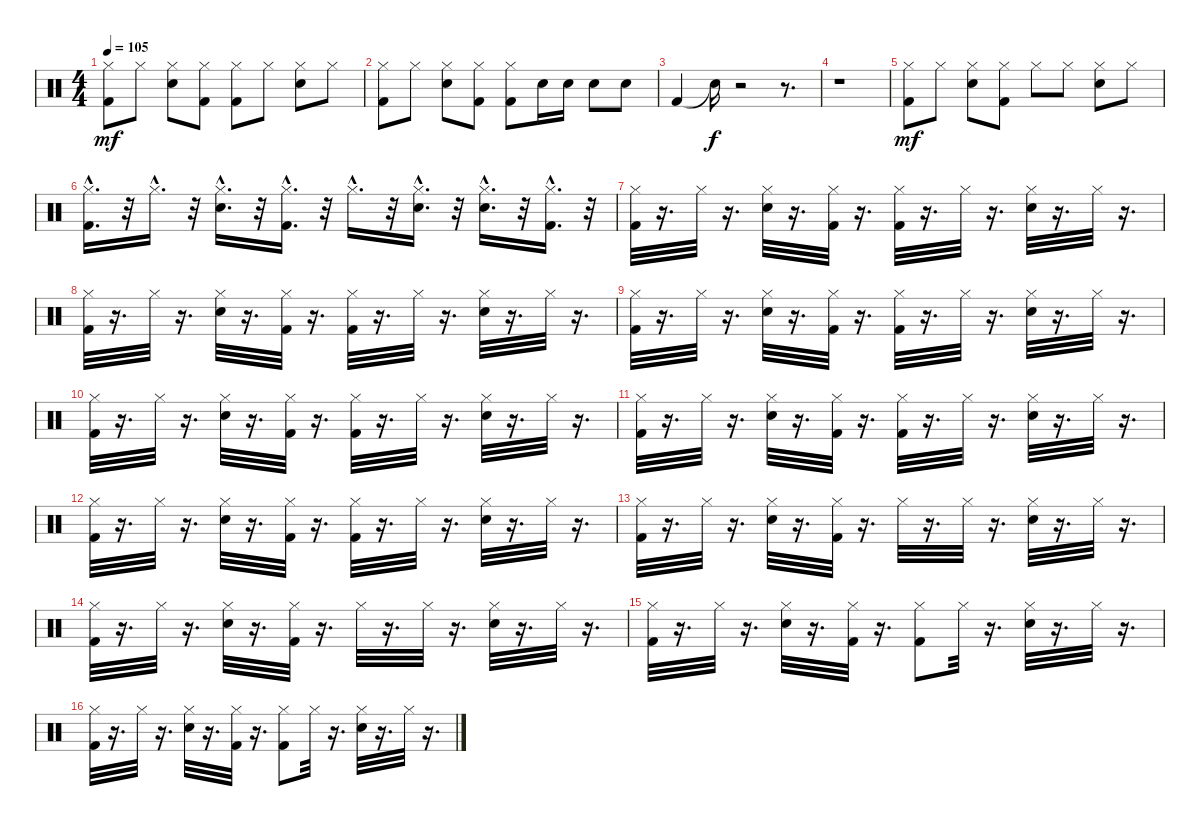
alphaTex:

\track "" {instrument percussion}
\staff {score}
\articulation defaults
\ts (4 4)
\tempo 105
\clef neutral
\ks c
("Kick (hit) 2" "Hi-Hat (closed)").8{dy mf} "Hi-Hat (closed)".8 ("Snare (hit) 2" "Hi-Hat (closed)").8 ("Kick (hit) 2" "Hi-Hat (closed)").8 ("Kick (hit) 2" "Hi-Hat (closed)").8 "Hi-Hat (closed)".8 ("Snare (hit) 2" "Hi-Hat (closed)").8 "Hi-Hat (closed)".8 |
("Kick (hit) 2" "Hi-Hat (closed)").8 "Hi-Hat (closed)".8 ("Snare (hit) 2" "Hi-Hat (closed)").8 ("Kick (hit) 2" "Hi-Hat (closed)").8 ("Kick (hit) 2" "Hi-Hat (closed)").8 "Snare (hit) 2".16 "Snare (hit) 2".16 "Snare (hit) 2".8 "Snare (hit) 2".8 |
"Kick (hit) 2".4 "Snare (hit)"{t}.16{dy f} r.2 r.8{d} |
r.1 |
("Kick (hit) 2" "Hi-Hat (closed)").8{dy mf} "Hi-Hat (closed)".8 ("Snare (hit) 2" "Hi-Hat (closed)").8 ("Kick (hit) 2" "Hi-Hat (closed)").8 "Hi-Hat (closed)".8 "Hi-Hat (closed)".8 ("Snare (hit) 2" "Hi-Hat (closed)").8 "Hi-Hat (closed)".8 |
("Kick (hit) 2" "Hi-Hat (closed)"{hac}).16{d} r.32 "Hi-Hat (closed)"{hac}.16{d} r.32 ("Snare (hit) 2" "Hi-Hat (closed)"{hac}).16{d} r.32 ("Kick (hit) 2" "Hi-Hat (closed)"{hac}).16{d} r.32 "Hi-Hat (closed)"{hac}.16{d} r.32 ("Snare (hit) 2" "Hi-Hat (closed)"{hac}).16{d} r.32 ("Snare (hit) 2" "Hi-Hat (closed)"{hac}).16{d} r.32 ("Kick (hit) 2" "Hi-Hat (closed)"{hac}).16{d} r.32 |
("Kick (hit) 2" "Hi-Hat (closed)").32 r.16{d} "Hi-Hat (closed)".32 r.16{d} ("Snare (hit) 2" "Hi-Hat (closed)").32 r.16{d} ("Kick (hit) 2" "Hi-Hat (closed)").32 r.16{d} ("Kick (hit) 2" "Hi-Hat (closed)").32 r.16{d} "Hi-Hat (closed)".32 r.16{d} ("Snare (hit) 2" "Hi-Hat (closed)").32 r.16{d} "Hi-Hat (closed)".32 r.16{d} |
("Kick (hit) 2" "Hi-Hat (closed)").32 r.16{d} "Hi-Hat (closed)".32 r.16{d} ("Snare (hit) 2" "Hi-Hat (closed)").32 r.16{d} ("Kick (hit) 2" "Hi-Hat (closed)").32 r.16{d} ("Kick (hit) 2" "Hi-Hat (closed)").32 r.16{d} "Hi-Hat (closed)".32 r.16{d} ("Snare (hit) 2" "Hi-Hat (closed)").32 r.16{d} "Hi-Hat (closed)".32 r.16{d} |
("Kick (hit) 2" "Hi-Hat (closed)").32 r.16{d} "Hi-Hat (closed)".32 r.16{d} ("Snare (hit) 2" "Hi-Hat (closed)").32 r.16{d} ("Kick (hit) 2" "Hi-Hat (closed)").32 r.16{d} ("Kick (hit) 2" "Hi-Hat (closed)").32 r.16{d} "Hi-Hat (closed)".32 r.16{d} ("Snare (hit) 2" "Hi-Hat (closed)").32 r.16{d} "Hi-Hat (closed)".32 r.16{d} |
("Kick (hit) 2" "Hi-Hat (closed)").32 r.16{d} "Hi-Hat (closed)".32 r.16{d} ("Snare (hit) 2" "Hi-Hat (closed)").32 r.16{d} ("Kick (hit) 2" "Hi-Hat (closed)").32 r.16{d} ("Kick (hit) 2" "Hi-Hat (closed)").32 r.16{d} "Hi-Hat (closed)".32 r.16{d} ("Snare (hit) 2" "Hi-Hat (closed)").32 r.16{d} "Hi-Hat (closed)".32 r.16{d} |
("Kick (hit) 2" "Hi-Hat (closed)").32 r.16{d} "Hi-Hat (closed)".32 r.16{d} ("Snare (hit) 2" "Hi-Hat (closed)").32 r.16{d} ("Kick (hit) 2" "Hi-Hat (closed)").32 r.16{d} ("Kick (hit) 2" "Hi-Hat (closed)").32 r.16{d} "Hi-Hat (closed)".32 r.16{d} ("Snare (hit) 2" "Hi-Hat (closed)").32 r.16{d} "Hi-Hat (closed)".32 r.16{d} |
("Kick (hit) 2" "Hi-Hat (closed)").32 r.16{d} "Hi-Hat (closed)".32 r.16{d} ("Snare (hit) 2" "Hi-Hat (closed)").32 r.16{d} ("Kick (hit) 2" "Hi-Hat (closed)").32 r.16{d} ("Kick (hit) 2" "Hi-Hat (closed)").32 r.16{d} "Hi-Hat (closed)".32 r.16{d} ("Snare (hit) 2" "Hi-Hat (closed)").32 r.16{d} "Hi-Hat (closed)".32 r.16{d} |
("Kick (hit) 2" "Hi-Hat (closed)").32 r.16{d} "Hi-Hat (closed)".32 r.16{d} ("Snare (hit) 2" "Hi-Hat (closed)").32 r.16{d} ("Kick (hit) 2" "Hi-Hat (closed)").32 r.16{d} "Hi-Hat (closed)".32 r.16{d} "Hi-Hat (closed)".32 r.16{d} ("Snare (hit) 2" "Hi-Hat (closed)").32 r.16{d} "Hi-Hat (closed)".32 r.16{d} |
("Kick (hit) 2" "Hi-Hat (closed)").32 r.16{d} "Hi-Hat (closed)".32 r.16{d} ("Snare (hit) 2" "Hi-Hat (closed)").32 r.16{d} ("Kick (hit) 2" "Hi-Hat (closed)").32 r.16{d} "Hi-Hat (closed)".32 r.16{d} "Hi-Hat (closed)".32 r.16{d} ("Snare (hit) 2" "Hi-Hat (closed)").32 r.16{d} "Hi-Hat (closed)".32 r.16{d} |
("Kick (hit) 2" "Hi-Hat (closed)").32 r.16{d} "Hi-Hat (closed)".32 r.16{d} ("Snare (hit) 2" "Hi-Hat (closed)").32 r.16{d} ("Kick (hit) 2" "Hi-Hat (closed)").32 r.16{d} ("Kick (hit) 2" "Hi-Hat (closed)").8 "Hi-Hat (closed)".32 r.16{d} ("Snare (hit) 2" "Hi-Hat (closed)").32 r.16{d} "Hi-Hat (closed)".32 r.16{d} |
("Kick (hit) 2" "Hi-Hat (closed)").32 r.16{d} "Hi-Hat (closed)".32 r.16{d} ("Snare (hit) 2" "Hi-Hat (closed)").32 r.16{d} ("Kick (hit) 2" "Hi-Hat (closed)").32 r.16{d} ("Kick (hit) 2" "Hi-Hat (closed)").8 "Hi-Hat (closed)".32 r.16{d} ("Snare (hit) 2" "Hi-Hat (closed)").32 r.16{d} "Hi-Hat (closed)".32 r.16{d}
